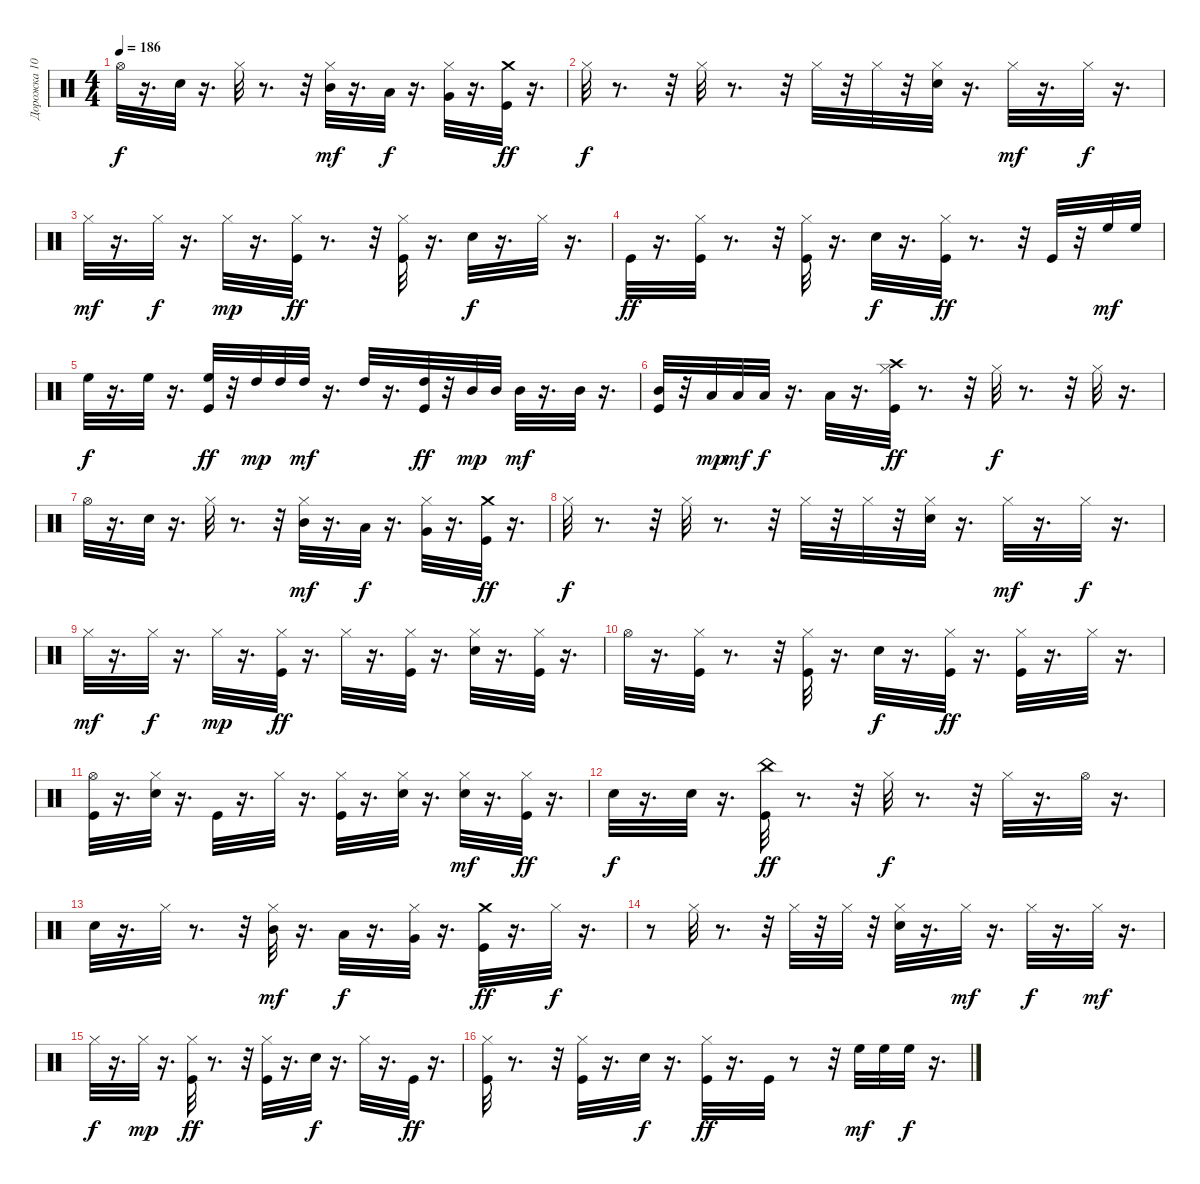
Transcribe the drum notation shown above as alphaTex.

\track ("Дорожка 10" "Дорожка 10") {instrument percussion}
\staff {score}
\articulation defaults
\ts (4 4)
\tempo 186
\clef neutral
\ks c "Hi-Hat (open)".32{dy f}
r.16{d} "Electric Snare (hit)".32 r.16{d} "Hi-Hat (closed)".32 r.8{d} r.32 ("Hi-Hat (closed)" "Mid Tom (hit)").32{dy mf} r.16{d} "Low Tom (hit)".32{dy f} r.16{d} ("Very Low Tom (hit)" "Hi-Hat (closed)").32 r.16{d} ("Kick (hit)" "Crash medium (hit)").32{dy ff} r.16{d} |
"Hi-Hat (closed)".32{dy f} r.8{d} r.32 "Hi-Hat (closed)".32 r.8{d} r.32 "Hi-Hat (closed)".32 r.32 "Hi-Hat (closed)".32 r.32 ("Hi-Hat (closed)" "Electric Snare (hit)").32 r.16{d} "Hi-Hat (closed)".32{dy mf} r.16{d} "Hi-Hat (closed)".32{dy f} r.16{d} |
"Hi-Hat (closed)".32{dy mf} r.16{d} "Hi-Hat (closed)".32{dy f} r.16{d} "Hi-Hat (closed)".32{dy mp} r.16{d} ("Hi-Hat (closed)" "Kick (hit)").32{dy ff} r.8{d} r.32 ("Hi-Hat (closed)" "Kick (hit)").32 r.16{d} "Electric Snare (hit)".32{dy f} r.16{d} "Hi-Hat (closed)".32 r.16{d} |
"Kick (hit)".32{dy ff} r.16{d} ("Hi-Hat (closed)" "Kick (hit)").32 r.8{d} r.32 ("Kick (hit)" "Hi-Hat (closed)").32 r.16{d} "Electric Snare (hit)".32{dy f} r.16{d} ("Kick (hit)" "Hi-Hat (closed)").32{dy ff} r.8{d} r.32 "Kick (hit)".32 r.32 "High Floor Tom (hit)".32{dy mf} "High Floor Tom (hit)".32 |
"High Floor Tom (hit)".32{dy f} r.16{d} "High Floor Tom (hit)".32 r.16{d} ("Kick (hit)" "High Floor Tom (hit)").32{dy ff} r.32 "High Tom (hit)".32{dy mp} "High Tom (hit)".32 "High Tom (hit)".32{dy mf} r.16{d} "High Tom (hit)".32 r.16{d} ("High Tom (hit)" "Kick (hit)").32{dy ff} r.32 "Mid Tom (hit)".32{dy mp} "Mid Tom (hit)".32 "Mid Tom (hit)".32{dy mf} r.16{d} "Mid Tom (hit)".32 r.16{d} |
("Kick (hit)" "Mid Tom (hit)").32 r.32 "Low Tom (hit)".32{dy mp} "Low Tom (hit)".32{dy mf} "Low Tom (hit)".32{dy f} r.16{d} "Low Tom (hit)".32 r.16{d} ("Kick (hit)" "Crash high (hit)" "Hi-Hat (closed)").32{dy ff} r.8{d} r.32 "Hi-Hat (closed)".32{dy f} r.8{d} r.32 "Hi-Hat (closed)".32 r.16{d} |
"Hi-Hat (open)".32 r.16{d} "Electric Snare (hit)".32 r.16{d} "Hi-Hat (closed)".32 r.8{d} r.32 ("Hi-Hat (closed)" "Mid Tom (hit)").32{dy mf} r.16{d} "Low Tom (hit)".32{dy f} r.16{d} ("Very Low Tom (hit)" "Hi-Hat (closed)").32 r.16{d} ("Kick (hit)" "Crash medium (hit)").32{dy ff} r.16{d} |
"Hi-Hat (closed)".32{dy f} r.8{d} r.32 "Hi-Hat (closed)".32 r.8{d} r.32 "Hi-Hat (closed)".32 r.32 "Hi-Hat (closed)".32 r.32 ("Hi-Hat (closed)" "Electric Snare (hit)").32 r.16{d} "Hi-Hat (closed)".32{dy mf} r.16{d} "Hi-Hat (closed)".32{dy f} r.16{d} |
"Hi-Hat (closed)".32{dy mf} r.16{d} "Hi-Hat (closed)".32{dy f} r.16{d} "Hi-Hat (closed)".32{dy mp} r.16{d} ("Hi-Hat (closed)" "Kick (hit)").32{dy ff} r.16{d} "Hi-Hat (closed)".32 r.16{d} ("Hi-Hat (closed)" "Kick (hit)").32 r.16{d} ("Hi-Hat (closed)" "Electric Snare (hit)").32 r.16{d} ("Hi-Hat (closed)" "Kick (hit)").32 r.16{d} |
"Hi-Hat (open)".32 r.16{d} ("Hi-Hat (closed)" "Kick (hit)").32 r.8{d} r.32 ("Kick (hit)" "Hi-Hat (closed)").32 r.16{d} "Electric Snare (hit)".32{dy f} r.16{d} ("Hi-Hat (closed)" "Kick (hit)").32{dy ff} r.16{d} ("Hi-Hat (closed)" "Kick (hit)").32 r.16{d} "Hi-Hat (closed)".32 r.16{d} |
("Hi-Hat (open)" "Kick (hit)").32 r.16{d} ("Hi-Hat (closed)" "Electric Snare (hit)").32 r.16{d} "Kick (hit)".32 r.16{d} "Hi-Hat (closed)".32 r.16{d} ("Hi-Hat (closed)" "Kick (hit)").32 r.16{d} ("Hi-Hat (closed)" "Electric Snare (hit)").32 r.16{d} ("Hi-Hat (closed)" "Electric Snare (hit)").32{dy mf} r.16{d} ("Hi-Hat (closed)" "Kick (hit)").32{dy ff} r.16{d} |
"Electric Snare (hit)".32{dy f} r.16{d} "Electric Snare (hit)".32 r.16{d} ("China (hit)" "Kick (hit)").32{dy ff} r.8{d} r.32 "Hi-Hat (closed)".32{dy f} r.8{d} r.32 "Hi-Hat (closed)".32 r.16{d} "Hi-Hat (open)".32 r.16{d} |
"Electric Snare (hit)".32 r.16{d} "Hi-Hat (closed)".32 r.8{d} r.32 ("Mid Tom (hit)" "Hi-Hat (closed)").32{dy mf} r.16{d} "Low Tom (hit)".32{dy f} r.16{d} ("Very Low Tom (hit)" "Hi-Hat (closed)").32 r.16{d} ("Crash medium (hit)" "Kick (hit)").32{dy ff} r.16{d} "Hi-Hat (closed)".32{dy f} r.16{d} |
r.8 "Hi-Hat (closed)".32 r.8{d} r.32 "Hi-Hat (closed)".32 r.32 "Hi-Hat (closed)".32 r.32 ("Electric Snare (hit)" "Hi-Hat (closed)").32 r.16{d} "Hi-Hat (closed)".32{dy mf} r.16{d} "Hi-Hat (closed)".32{dy f} r.16{d} "Hi-Hat (closed)".32{dy mf} r.16{d} |
"Hi-Hat (closed)".32{dy f} r.16{d} "Hi-Hat (closed)".32{dy mp} r.16{d} ("Hi-Hat (closed)" "Kick (hit)").32{dy ff} r.8{d} r.32 ("Kick (hit)" "Hi-Hat (closed)").32 r.16{d} "Electric Snare (hit)".32{dy f} r.16{d} "Hi-Hat (closed)".32 r.16{d} "Kick (hit)".32{dy ff} r.16{d} |
("Hi-Hat (closed)" "Kick (hit)").32 r.8{d} r.32 ("Hi-Hat (closed)" "Kick (hit)").32 r.16{d} "Electric Snare (hit)".32{dy f} r.16{d} ("Kick (hit)" "Hi-Hat (closed)").32{dy ff} r.16{d} "Kick (hit)".32 r.8 r.32 "High Floor Tom (hit)".32{dy mf} "High Floor Tom (hit)".32 "High Floor Tom (hit)".32{dy f} r.16{d}
